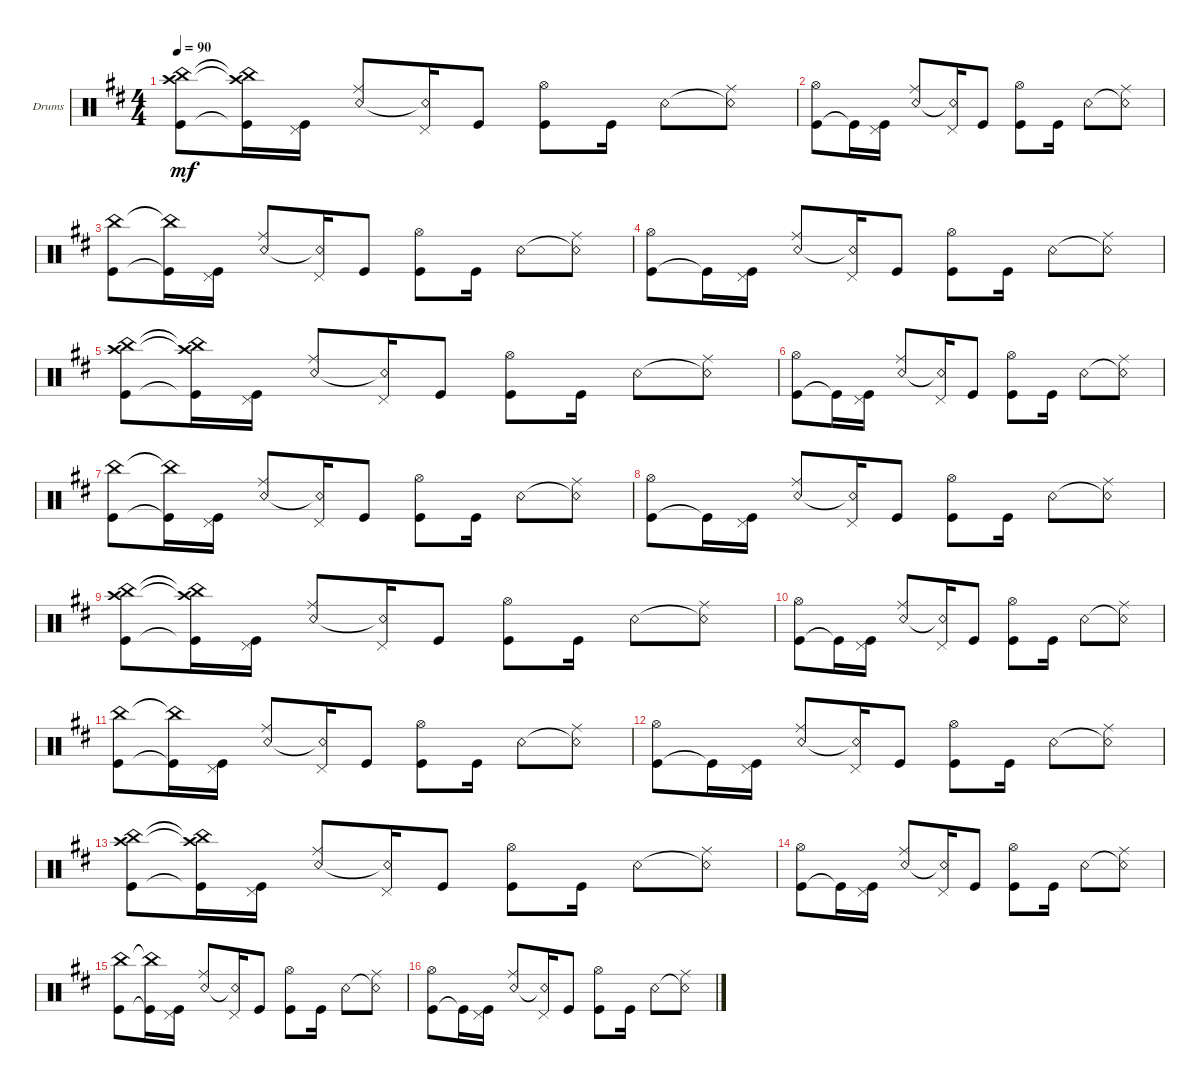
\defaultSystemsLayout 4
\bracketExtendMode groupsimilarinstruments
\firstSystemTrackNameOrientation horizontal
\otherSystemsTrackNameOrientation horizontal
\track ("Bateria" "Drums") {multiBarRest instrument percussion}
\staff {score}
\articulation defaults
\ts (4 4)
\tempo 90
\clef neutral
\ks d
("Kick (hit)" "China (hit)" "Crash high (hit)").8{dy mf} ("Kick (hit)"{t} "China (hit)"{t} "Crash high (hit)"{t}).16 ("Kick (hit)" "Pedal Hi-Hat (hit)").16 ("Snare (rim shot)" "Ride (middle)").8 ("Snare (rim shot)"{t} "Pedal Hi-Hat (hit)").16 "Kick (hit)".8 ("Kick (hit)" "Hi-Hat (open)").8 "Kick (hit)".16 "Snare (rim shot)".8 ("Snare (rim shot)"{t} "Ride (middle)").8 |
("Kick (hit)" "Hi-Hat (open)").8 "Kick (hit)"{t}.16 ("Kick (hit)" "Pedal Hi-Hat (hit)").16 ("Snare (rim shot)" "Ride (middle)").8 ("Snare (rim shot)"{t} "Pedal Hi-Hat (hit)").16 "Kick (hit)".8 ("Kick (hit)" "Hi-Hat (open)").8 "Kick (hit)".16 "Snare (rim shot)".8 ("Snare (rim shot)"{t} "Ride (middle)").8 |
("Kick (hit)" "China (hit)").8 ("Kick (hit)"{t} "China (hit)"{t}).16 ("Kick (hit)" "Pedal Hi-Hat (hit)").16 ("Snare (rim shot)" "Ride (middle)").8 ("Snare (rim shot)"{t} "Pedal Hi-Hat (hit)").16 "Kick (hit)".8 ("Kick (hit)" "Hi-Hat (open)").8 "Kick (hit)".16 "Snare (rim shot)".8 ("Snare (rim shot)"{t} "Ride (middle)").8 |
("Kick (hit)" "Hi-Hat (open)").8 "Kick (hit)"{t}.16 ("Kick (hit)" "Pedal Hi-Hat (hit)").16 ("Snare (rim shot)" "Ride (middle)").8 ("Snare (rim shot)"{t} "Pedal Hi-Hat (hit)").16 "Kick (hit)".8 ("Kick (hit)" "Hi-Hat (open)").8 "Kick (hit)".16 "Snare (rim shot)".8 ("Snare (rim shot)"{t} "Ride (middle)").8 |
("Kick (hit)" "China (hit)" "Crash high (hit)").8 ("Kick (hit)"{t} "China (hit)"{t} "Crash high (hit)"{t}).16 ("Kick (hit)" "Pedal Hi-Hat (hit)").16 ("Snare (rim shot)" "Ride (middle)").8 ("Snare (rim shot)"{t} "Pedal Hi-Hat (hit)").16 "Kick (hit)".8 ("Kick (hit)" "Hi-Hat (open)").8 "Kick (hit)".16 "Snare (rim shot)".8 ("Snare (rim shot)"{t} "Ride (middle)").8 |
("Kick (hit)" "Hi-Hat (open)").8 "Kick (hit)"{t}.16 ("Kick (hit)" "Pedal Hi-Hat (hit)").16 ("Snare (rim shot)" "Ride (middle)").8 ("Snare (rim shot)"{t} "Pedal Hi-Hat (hit)").16 "Kick (hit)".8 ("Kick (hit)" "Hi-Hat (open)").8 "Kick (hit)".16 "Snare (rim shot)".8 ("Snare (rim shot)"{t} "Ride (middle)").8 |
("Kick (hit)" "China (hit)").8 ("Kick (hit)"{t} "China (hit)"{t}).16 ("Kick (hit)" "Pedal Hi-Hat (hit)").16 ("Snare (rim shot)" "Ride (middle)").8 ("Snare (rim shot)"{t} "Pedal Hi-Hat (hit)").16 "Kick (hit)".8 ("Kick (hit)" "Hi-Hat (open)").8 "Kick (hit)".16 "Snare (rim shot)".8 ("Snare (rim shot)"{t} "Ride (middle)").8 |
("Kick (hit)" "Hi-Hat (open)").8 "Kick (hit)"{t}.16 ("Kick (hit)" "Pedal Hi-Hat (hit)").16 ("Snare (rim shot)" "Ride (middle)").8 ("Snare (rim shot)"{t} "Pedal Hi-Hat (hit)").16 "Kick (hit)".8 ("Kick (hit)" "Hi-Hat (open)").8 "Kick (hit)".16 "Snare (rim shot)".8 ("Snare (rim shot)"{t} "Ride (middle)").8 |
("Kick (hit)" "China (hit)" "Crash high (hit)").8 ("Kick (hit)"{t} "China (hit)"{t} "Crash high (hit)"{t}).16 ("Kick (hit)" "Pedal Hi-Hat (hit)").16 ("Snare (rim shot)" "Ride (middle)").8 ("Snare (rim shot)"{t} "Pedal Hi-Hat (hit)").16 "Kick (hit)".8 ("Kick (hit)" "Hi-Hat (open)").8 "Kick (hit)".16 "Snare (rim shot)".8 ("Snare (rim shot)"{t} "Ride (middle)").8 |
("Kick (hit)" "Hi-Hat (open)").8 "Kick (hit)"{t}.16 ("Kick (hit)" "Pedal Hi-Hat (hit)").16 ("Snare (rim shot)" "Ride (middle)").8 ("Snare (rim shot)"{t} "Pedal Hi-Hat (hit)").16 "Kick (hit)".8 ("Kick (hit)" "Hi-Hat (open)").8 "Kick (hit)".16 "Snare (rim shot)".8 ("Snare (rim shot)"{t} "Ride (middle)").8 |
("Kick (hit)" "China (hit)").8 ("Kick (hit)"{t} "China (hit)"{t}).16 ("Kick (hit)" "Pedal Hi-Hat (hit)").16 ("Snare (rim shot)" "Ride (middle)").8 ("Snare (rim shot)"{t} "Pedal Hi-Hat (hit)").16 "Kick (hit)".8 ("Kick (hit)" "Hi-Hat (open)").8 "Kick (hit)".16 "Snare (rim shot)".8 ("Snare (rim shot)"{t} "Ride (middle)").8 |
("Kick (hit)" "Hi-Hat (open)").8 "Kick (hit)"{t}.16 ("Kick (hit)" "Pedal Hi-Hat (hit)").16 ("Snare (rim shot)" "Ride (middle)").8 ("Snare (rim shot)"{t} "Pedal Hi-Hat (hit)").16 "Kick (hit)".8 ("Kick (hit)" "Hi-Hat (open)").8 "Kick (hit)".16 "Snare (rim shot)".8 ("Snare (rim shot)"{t} "Ride (middle)").8 |
("Kick (hit)" "China (hit)" "Crash high (hit)").8 ("Kick (hit)"{t} "China (hit)"{t} "Crash high (hit)"{t}).16 ("Kick (hit)" "Pedal Hi-Hat (hit)").16 ("Snare (rim shot)" "Ride (middle)").8 ("Snare (rim shot)"{t} "Pedal Hi-Hat (hit)").16 "Kick (hit)".8 ("Kick (hit)" "Hi-Hat (open)").8 "Kick (hit)".16 "Snare (rim shot)".8 ("Snare (rim shot)"{t} "Ride (middle)").8 |
("Kick (hit)" "Hi-Hat (open)").8 "Kick (hit)"{t}.16 ("Kick (hit)" "Pedal Hi-Hat (hit)").16 ("Snare (rim shot)" "Ride (middle)").8 ("Snare (rim shot)"{t} "Pedal Hi-Hat (hit)").16 "Kick (hit)".8 ("Kick (hit)" "Hi-Hat (open)").8 "Kick (hit)".16 "Snare (rim shot)".8 ("Snare (rim shot)"{t} "Ride (middle)").8 |
("Kick (hit)" "China (hit)").8 ("Kick (hit)"{t} "China (hit)"{t}).16 ("Kick (hit)" "Pedal Hi-Hat (hit)").16 ("Snare (rim shot)" "Ride (middle)").8 ("Snare (rim shot)"{t} "Pedal Hi-Hat (hit)").16 "Kick (hit)".8 ("Kick (hit)" "Hi-Hat (open)").8 "Kick (hit)".16 "Snare (rim shot)".8 ("Snare (rim shot)"{t} "Ride (middle)").8 |
("Kick (hit)" "Hi-Hat (open)").8 "Kick (hit)"{t}.16 ("Kick (hit)" "Pedal Hi-Hat (hit)").16 ("Snare (rim shot)" "Ride (middle)").8 ("Snare (rim shot)"{t} "Pedal Hi-Hat (hit)").16 "Kick (hit)".8 ("Kick (hit)" "Hi-Hat (open)").8 "Kick (hit)".16 "Snare (rim shot)".8 ("Snare (rim shot)"{t} "Ride (middle)").8
